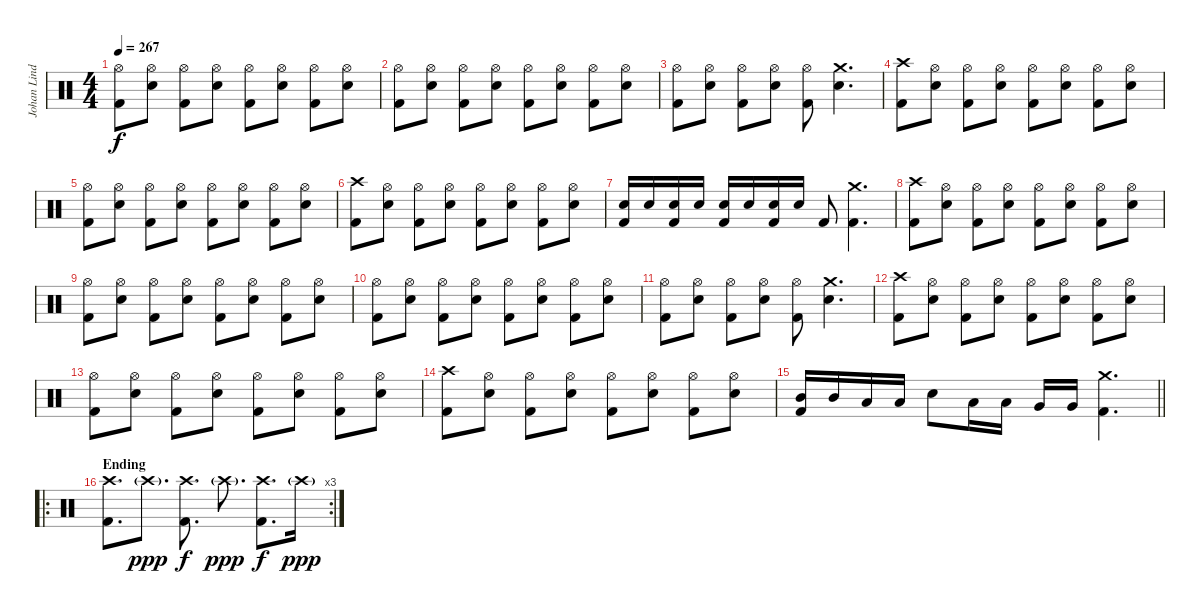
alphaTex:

\track ("Johan Lindstrand" "Johan Lind") {instrument percussion}
\staff {score}
\articulation defaults
\ts (4 4)
\tempo 267
\clef neutral
\ks c
("Hi-Hat (open)" "Kick (hit) 2").8{dy f} ("Hi-Hat (open)" "Electric Snare (hit)").8 ("Hi-Hat (open)" "Kick (hit) 2").8 ("Hi-Hat (open)" "Electric Snare (hit)").8 ("Hi-Hat (open)" "Kick (hit) 2").8 ("Hi-Hat (open)" "Electric Snare (hit)").8 ("Hi-Hat (open)" "Kick (hit) 2").8 ("Hi-Hat (open)" "Electric Snare (hit)").8 |
("Hi-Hat (open)" "Kick (hit) 2").8 ("Hi-Hat (open)" "Electric Snare (hit)").8 ("Hi-Hat (open)" "Kick (hit) 2").8 ("Hi-Hat (open)" "Electric Snare (hit)").8 ("Hi-Hat (open)" "Kick (hit) 2").8 ("Hi-Hat (open)" "Electric Snare (hit)").8 ("Hi-Hat (open)" "Kick (hit) 2").8 ("Hi-Hat (open)" "Electric Snare (hit)").8 |
("Hi-Hat (open)" "Kick (hit) 2").8 ("Hi-Hat (open)" "Electric Snare (hit)").8 ("Hi-Hat (open)" "Kick (hit) 2").8 ("Hi-Hat (open)" "Electric Snare (hit)").8 ("Hi-Hat (open)" "Kick (hit) 2").8 ("Crash medium (hit)" "Electric Snare (hit)").4{d} |
("Crash high (hit)" "Kick (hit) 2").8 ("Hi-Hat (open)" "Electric Snare (hit)").8 ("Hi-Hat (open)" "Kick (hit) 2").8 ("Hi-Hat (open)" "Electric Snare (hit)").8 ("Hi-Hat (open)" "Kick (hit) 2").8 ("Hi-Hat (open)" "Electric Snare (hit)").8 ("Hi-Hat (open)" "Kick (hit) 2").8 ("Hi-Hat (open)" "Electric Snare (hit)").8 |
("Hi-Hat (open)" "Kick (hit) 2").8 ("Hi-Hat (open)" "Electric Snare (hit)").8 ("Hi-Hat (open)" "Kick (hit) 2").8 ("Hi-Hat (open)" "Electric Snare (hit)").8 ("Hi-Hat (open)" "Kick (hit) 2").8 ("Hi-Hat (open)" "Electric Snare (hit)").8 ("Hi-Hat (open)" "Kick (hit) 2").8 ("Hi-Hat (open)" "Electric Snare (hit)").8 |
("Crash high (hit)" "Kick (hit) 2").8 ("Hi-Hat (open)" "Electric Snare (hit)").8 ("Hi-Hat (open)" "Kick (hit) 2").8 ("Hi-Hat (open)" "Electric Snare (hit)").8 ("Hi-Hat (open)" "Kick (hit) 2").8 ("Hi-Hat (open)" "Electric Snare (hit)").8 ("Hi-Hat (open)" "Kick (hit) 2").8 ("Hi-Hat (open)" "Electric Snare (hit)").8 |
("Electric Snare (hit)" "Kick (hit) 2").16 "Electric Snare (hit)".16 ("Electric Snare (hit)" "Kick (hit) 2").16 "Electric Snare (hit)".16 ("Electric Snare (hit)" "Kick (hit) 2").16 "Electric Snare (hit)".16 ("Electric Snare (hit)" "Kick (hit) 2").16 "Electric Snare (hit)".16 "Kick (hit) 2".8 ("Crash medium (hit)" "Kick (hit) 2").4{d} |
("Crash high (hit)" "Kick (hit) 2").8 ("Hi-Hat (open)" "Electric Snare (hit)").8 ("Hi-Hat (open)" "Kick (hit) 2").8 ("Hi-Hat (open)" "Electric Snare (hit)").8 ("Hi-Hat (open)" "Kick (hit) 2").8 ("Hi-Hat (open)" "Electric Snare (hit)").8 ("Hi-Hat (open)" "Kick (hit) 2").8 ("Hi-Hat (open)" "Electric Snare (hit)").8 |
("Hi-Hat (open)" "Kick (hit) 2").8 ("Hi-Hat (open)" "Electric Snare (hit)").8 ("Hi-Hat (open)" "Kick (hit) 2").8 ("Hi-Hat (open)" "Electric Snare (hit)").8 ("Hi-Hat (open)" "Kick (hit) 2").8 ("Hi-Hat (open)" "Electric Snare (hit)").8 ("Hi-Hat (open)" "Kick (hit) 2").8 ("Hi-Hat (open)" "Electric Snare (hit)").8 |
("Hi-Hat (open)" "Kick (hit) 2").8 ("Hi-Hat (open)" "Electric Snare (hit)").8 ("Hi-Hat (open)" "Kick (hit) 2").8 ("Hi-Hat (open)" "Electric Snare (hit)").8 ("Hi-Hat (open)" "Kick (hit) 2").8 ("Hi-Hat (open)" "Electric Snare (hit)").8 ("Hi-Hat (open)" "Kick (hit) 2").8 ("Hi-Hat (open)" "Electric Snare (hit)").8 |
("Hi-Hat (open)" "Kick (hit) 2").8 ("Hi-Hat (open)" "Electric Snare (hit)").8 ("Hi-Hat (open)" "Kick (hit) 2").8 ("Hi-Hat (open)" "Electric Snare (hit)").8 ("Hi-Hat (open)" "Kick (hit) 2").8 ("Crash medium (hit)" "Electric Snare (hit)").4{d} |
("Crash high (hit)" "Kick (hit) 2").8 ("Hi-Hat (open)" "Electric Snare (hit)").8 ("Hi-Hat (open)" "Kick (hit) 2").8 ("Hi-Hat (open)" "Electric Snare (hit)").8 ("Hi-Hat (open)" "Kick (hit) 2").8 ("Hi-Hat (open)" "Electric Snare (hit)").8 ("Hi-Hat (open)" "Kick (hit) 2").8 ("Hi-Hat (open)" "Electric Snare (hit)").8 |
("Hi-Hat (open)" "Kick (hit) 2").8 ("Hi-Hat (open)" "Electric Snare (hit)").8 ("Hi-Hat (open)" "Kick (hit) 2").8 ("Hi-Hat (open)" "Electric Snare (hit)").8 ("Hi-Hat (open)" "Kick (hit) 2").8 ("Hi-Hat (open)" "Electric Snare (hit)").8 ("Hi-Hat (open)" "Kick (hit) 2").8 ("Hi-Hat (open)" "Electric Snare (hit)").8 |
("Crash high (hit)" "Kick (hit) 2").8 ("Hi-Hat (open)" "Electric Snare (hit)").8 ("Hi-Hat (open)" "Kick (hit) 2").8 ("Hi-Hat (open)" "Electric Snare (hit)").8 ("Hi-Hat (open)" "Kick (hit) 2").8 ("Hi-Hat (open)" "Electric Snare (hit)").8 ("Hi-Hat (open)" "Kick (hit) 2").8 ("Hi-Hat (open)" "Electric Snare (hit)").8 |
\barLineRight lightlight
("Mid Tom (hit)" "Kick (hit) 2").16 "Mid Tom (hit)".16 "Low Tom (hit)".16 "Low Tom (hit)".16 "Electric Snare (hit)".8 "Low Tom (hit)".16 "Low Tom (hit)".16 "Very Low Tom (hit)".16 "Very Low Tom (hit)".16 ("Crash medium (hit)" "Kick (hit) 2").4{d} |
\ro
\rc 3
\section ("" "Ending")
("Crash high (hit)" "Kick (hit) 2").8{d} "Crash high (hit)"{g}.8{d dy ppp} ("Crash high (hit)" "Kick (hit) 2").8{d dy f} "Crash high (hit)"{g}.8{d dy ppp} ("Crash high (hit)" "Kick (hit) 2").8{d dy f} "Crash high (hit)"{g}.16{dy ppp}
